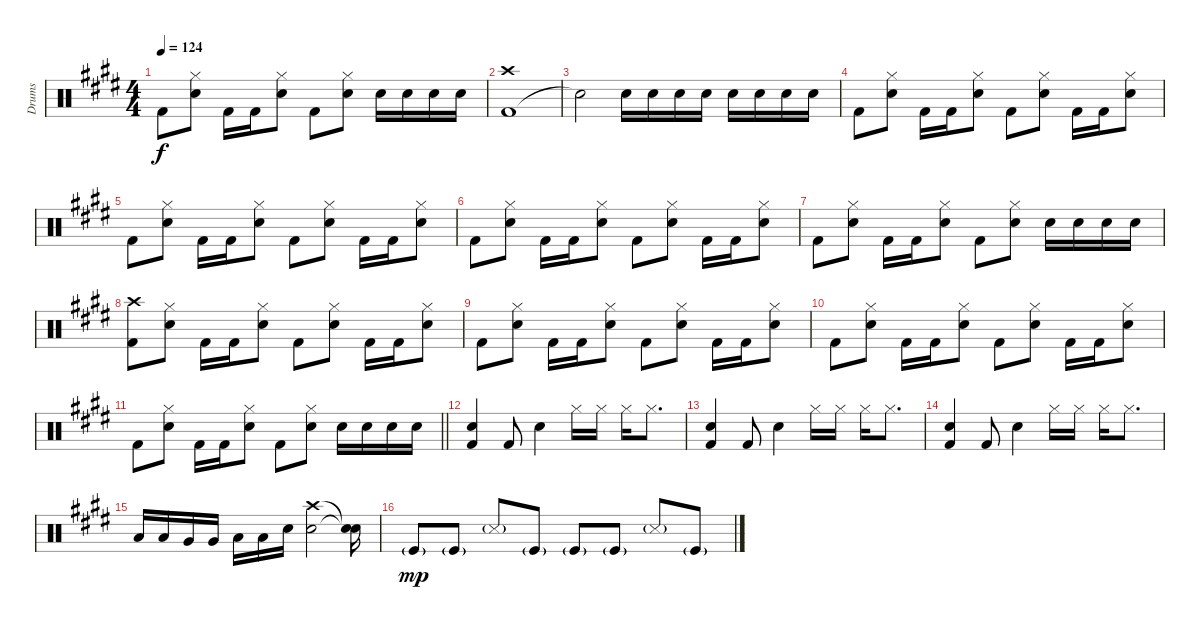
\track ("Drums" "Drums") {instrument percussion}
\staff {score}
\articulation defaults
\ts (4 4)
\tempo 124
\clef neutral
\ks c#minor "Kick (hit) 2".8{dy f}
("Snare (hit) 2" "Hi-Hat (closed)").8 "Kick (hit) 2".16 "Kick (hit) 2".16 ("Snare (hit) 2" "Hi-Hat (closed)").8 "Kick (hit) 2".8 ("Snare (hit) 2" "Hi-Hat (closed)").8 "Electric Snare (hit)".16 "Electric Snare (hit)".16 "Electric Snare (hit)".16 "Electric Snare (hit)".16 |
("Kick (hit) 2" "Crash high (hit)").1 |
"Snare (hit)"{t}.2 "Electric Snare (hit)".16 "Electric Snare (hit)".16 "Electric Snare (hit)".16 "Electric Snare (hit)".16 "Electric Snare (hit)".16 "Electric Snare (hit)".16 "Electric Snare (hit)".16 "Electric Snare (hit)".16 |
"Kick (hit) 2".8 ("Snare (hit) 2" "Hi-Hat (closed)").8 "Kick (hit) 2".16 "Kick (hit) 2".16 ("Snare (hit) 2" "Hi-Hat (closed)").8 "Kick (hit) 2".8 ("Snare (hit) 2" "Hi-Hat (closed)").8 "Kick (hit) 2".16 "Kick (hit) 2".16 ("Snare (hit) 2" "Hi-Hat (closed)").8 |
"Kick (hit) 2".8 ("Snare (hit) 2" "Hi-Hat (closed)").8 "Kick (hit) 2".16 "Kick (hit) 2".16 ("Snare (hit) 2" "Hi-Hat (closed)").8 "Kick (hit) 2".8 ("Snare (hit) 2" "Hi-Hat (closed)").8 "Kick (hit) 2".16 "Kick (hit) 2".16 ("Snare (hit) 2" "Hi-Hat (closed)").8 |
"Kick (hit) 2".8 ("Snare (hit) 2" "Hi-Hat (closed)").8 "Kick (hit) 2".16 "Kick (hit) 2".16 ("Snare (hit) 2" "Hi-Hat (closed)").8 "Kick (hit) 2".8 ("Snare (hit) 2" "Hi-Hat (closed)").8 "Kick (hit) 2".16 "Kick (hit) 2".16 ("Snare (hit) 2" "Hi-Hat (closed)").8 |
"Kick (hit) 2".8 ("Snare (hit) 2" "Hi-Hat (closed)").8 "Kick (hit) 2".16 "Kick (hit) 2".16 ("Snare (hit) 2" "Hi-Hat (closed)").8 "Kick (hit) 2".8 ("Snare (hit) 2" "Hi-Hat (closed)").8 "Electric Snare (hit)".16 "Electric Snare (hit)".16 "Electric Snare (hit)".16 "Electric Snare (hit)".16 |
("Kick (hit) 2" "Crash high (hit)").8 ("Snare (hit) 2" "Hi-Hat (closed)").8 "Kick (hit) 2".16 "Kick (hit) 2".16 ("Snare (hit) 2" "Hi-Hat (closed)").8 "Kick (hit) 2".8 ("Snare (hit) 2" "Hi-Hat (closed)").8 "Kick (hit) 2".16 "Kick (hit) 2".16 ("Snare (hit) 2" "Hi-Hat (closed)").8 |
"Kick (hit) 2".8 ("Snare (hit) 2" "Hi-Hat (closed)").8 "Kick (hit) 2".16 "Kick (hit) 2".16 ("Snare (hit) 2" "Hi-Hat (closed)").8 "Kick (hit) 2".8 ("Snare (hit) 2" "Hi-Hat (closed)").8 "Kick (hit) 2".16 "Kick (hit) 2".16 ("Snare (hit) 2" "Hi-Hat (closed)").8 |
"Kick (hit) 2".8 ("Snare (hit) 2" "Hi-Hat (closed)").8 "Kick (hit) 2".16 "Kick (hit) 2".16 ("Snare (hit) 2" "Hi-Hat (closed)").8 "Kick (hit) 2".8 ("Snare (hit) 2" "Hi-Hat (closed)").8 "Kick (hit) 2".16 "Kick (hit) 2".16 ("Snare (hit) 2" "Hi-Hat (closed)").8 |
\barLineRight lightlight "Kick (hit) 2".8
("Snare (hit) 2" "Hi-Hat (closed)").8 "Kick (hit) 2".16 "Kick (hit) 2".16 ("Snare (hit) 2" "Hi-Hat (closed)").8 "Kick (hit) 2".8 ("Snare (hit) 2" "Hi-Hat (closed)").8 "Electric Snare (hit)".16 "Electric Snare (hit)".16 "Electric Snare (hit)".16 "Electric Snare (hit)".16 |
\ks e
("Kick (hit) 2" "Electric Snare (hit)").4 "Kick (hit) 2".8 "Electric Snare (hit)".4 "Hi-Hat (closed)".16 "Hi-Hat (closed)".16 "Hi-Hat (closed)".16 "Hi-Hat (closed)".8{d} |
\ks c#minor
("Kick (hit) 2" "Electric Snare (hit)").4 "Kick (hit) 2".8 "Electric Snare (hit)".4 "Hi-Hat (closed)".16 "Hi-Hat (closed)".16 "Hi-Hat (closed)".16 "Hi-Hat (closed)".8{d} |
("Kick (hit) 2" "Electric Snare (hit)").4 "Kick (hit) 2".8 "Electric Snare (hit)".4 "Hi-Hat (closed)".16 "Hi-Hat (closed)".16 "Hi-Hat (closed)".16 "Hi-Hat (closed)".8{d} |
"Low Tom (hit)".16 "Low Tom (hit)".16 "Very Low Tom (hit)".16 "Very Low Tom (hit)".16 "Low Floor Tom (hit)".16 "Low Floor Tom (hit)".16 "Electric Snare (hit)".16 ("Electric Snare (hit)" "Crash high (hit)").2 ("Snare (hit)"{t} "Snare (hit)"{t}).16 |
"Kick (hit)"{g}.8{dy mp} "Kick (hit)"{g}.8 "Metronome (hit)"{g}.8 "Kick (hit)"{g}.8 "Kick (hit)"{g}.8 "Kick (hit)"{g}.8 "Metronome (hit)"{g}.8 "Kick (hit)"{g}.8
